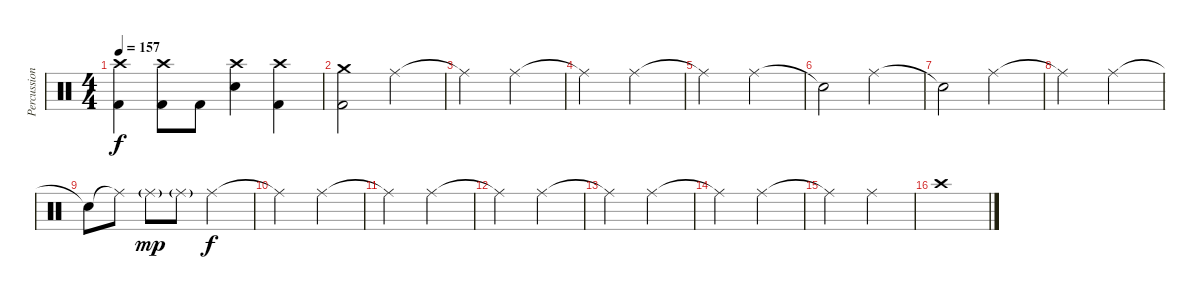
\track ("Percussion" "Percussion") {instrument percussion}
\staff {score}
\articulation defaults
\ts (4 4)
\tempo 157
\clef neutral
\ks c
("Crash high (hit)" "Kick (hit) 2").4{dy f} ("Crash high (hit)" "Kick (hit) 2").8 "Kick (hit) 2".8 ("Crash high (hit)" "Snare (hit) 2").4 ("Crash high (hit)" "Kick (hit) 2").4 |
("Crash medium (hit)" "Kick (hit) 2").2 "Ride (middle)".2 |
"Ride (middle)"{t}.2 "Ride (middle)".2 |
"Ride (middle)"{t}.2 "Ride (middle)".2 |
"Ride (middle)"{t}.2 "Ride (middle)".2 |
"Snare (hit)"{t}.2 "Ride (middle)".2 |
"Snare (hit)"{t}.2 "Ride (middle)".2 |
"Ride (middle)"{t}.2 "Ride (middle)".2 |
"Snare (hit)"{t}.8 "Ride (middle)"{t}.8 "Ride (middle)"{g}.8{dy mp} "Ride (middle)"{g}.8 "Ride (middle)".2{dy f} |
"Ride (middle)"{t}.2 "Ride (middle)".2 |
"Ride (middle)"{t}.2 "Ride (middle)".2 |
"Ride (middle)"{t}.2 "Ride (middle)".2 |
"Ride (middle)"{t}.2 "Ride (middle)".2 |
"Ride (middle)"{t}.2 "Ride (middle)".2 |
"Ride (middle)"{t}.2 "Ride (middle)".2 |
"Crash high (hit)".1
